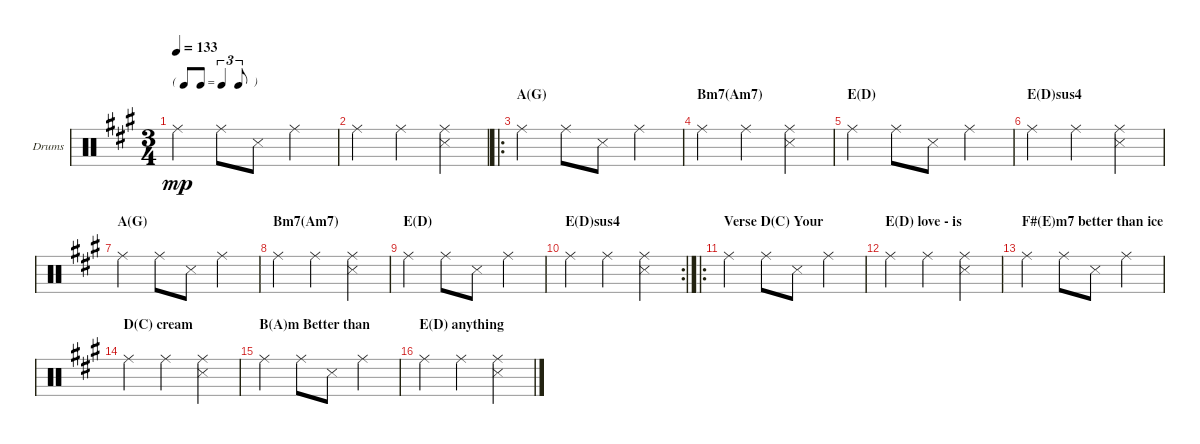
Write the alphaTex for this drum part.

\bracketExtendMode groupsimilarinstruments
\firstSystemTrackNameOrientation horizontal
\otherSystemsTrackNameOrientation horizontal
\track ("Drumkit" "Drums") {solo instrument percussion}
\staff {score}
\articulation defaults
\ts (3 4)
\tf triplet8th
\tempo 133
\clef neutral
\scale
0.225879
\ks a "Ride (middle)".4{dy mp} "Ride (middle)".8 "Snare (side stick) 3".8 "Ride (middle)".4
|
\scale
0.12528 "Ride (middle)".4 "Ride (middle)".4 ("Ride (middle)" "Snare (side stick) 3").4 |
\ro
\section ("" "A(G)")
\scale
0.18557 "Ride (middle)".4 "Ride (middle)".8 "Snare (side stick) 3".8 "Ride (middle)".4 |
\section ("" "Bm7(Am7)")
\scale
0.177286 "Ride (middle)".4 "Ride (middle)".4 ("Ride (middle)" "Snare (side stick) 3").4 |
\section ("" "E(D)")
\scale
0.166079 "Ride (middle)".4 "Ride (middle)".8 "Snare (side stick) 3".8 "Ride (middle)".4 |
\section ("" "E(D)sus4")
\scale
0.119359 "Ride (middle)".4 "Ride (middle)".4 ("Ride (middle)" "Snare (side stick) 3").4 |
\section ("" "A(G)")
"Ride (middle)".4 "Ride (middle)".8 "Snare (side stick) 3".8 "Ride (middle)".4 |
\section ("" "Bm7(Am7)")
"Ride (middle)".4 "Ride (middle)".4 ("Ride (middle)" "Snare (side stick) 3").4 |
\section ("" "E(D)")
"Ride (middle)".4 "Ride (middle)".8 "Snare (side stick) 3".8 "Ride (middle)".4 |
\rc 2
\section ("" "E(D)sus4")
"Ride (middle)".4 "Ride (middle)".4 ("Ride (middle)" "Snare (side stick) 3").4 |
\ro
\section ("" "Verse D(C) Your")
"Ride (middle)".4 "Ride (middle)".8 "Snare (side stick) 3".8 "Ride (middle)".4 |
\section ("" "E(D) love - is")
"Ride (middle)".4 "Ride (middle)".4 ("Ride (middle)" "Snare (side stick) 3").4 |
\section ("" "F#(E)m7 better than ice")
"Ride (middle)".4 "Ride (middle)".8 "Snare (side stick) 3".8 "Ride (middle)".4 |
\section ("" "D(C) cream")
"Ride (middle)".4 "Ride (middle)".4 ("Ride (middle)" "Snare (side stick) 3").4 |
\section ("" "B(A)m Better than")
"Ride (middle)".4 "Ride (middle)".8 "Snare (side stick) 3".8 "Ride (middle)".4 |
\section ("" "E(D) anything")
"Ride (middle)".4 "Ride (middle)".4 ("Ride (middle)" "Snare (side stick) 3").4
